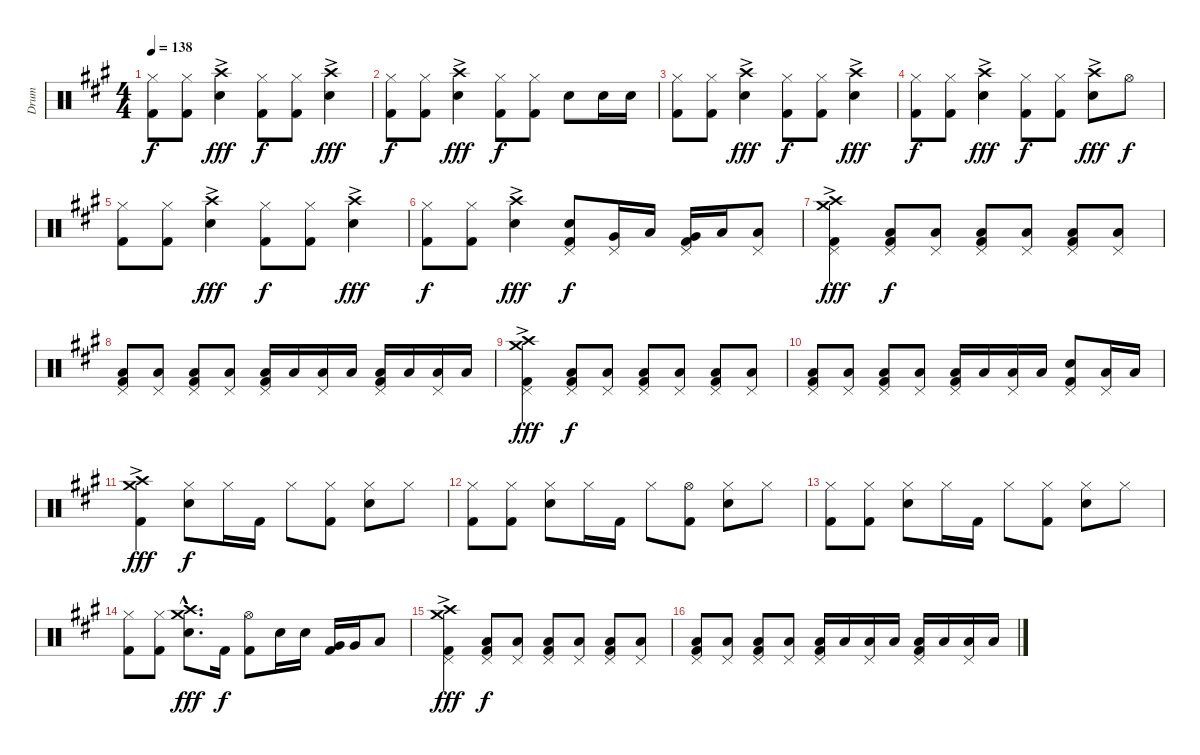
\track ("Drum" "Drum") {instrument percussion}
\staff {score}
\articulation defaults
\ts (4 4)
\tempo 138
\clef neutral
\ks a
("Hi-Hat (closed)" "Kick (hit) 2").8{dy f} ("Hi-Hat (closed)" "Kick (hit) 2").8 ("Crash high (hit)"{ac} "Snare (hit) 2").4{dy fff} ("Hi-Hat (closed)" "Kick (hit) 2").8{dy f} ("Hi-Hat (closed)" "Kick (hit) 2").8 ("Crash high (hit)"{ac} "Snare (hit) 2").4{dy fff} |
("Hi-Hat (closed)" "Kick (hit) 2").8{dy f} ("Hi-Hat (closed)" "Kick (hit) 2").8 ("Crash high (hit)"{ac} "Snare (hit) 2").4{dy fff} ("Hi-Hat (closed)" "Kick (hit) 2").8{dy f} ("Hi-Hat (closed)" "Kick (hit) 2").8 "Snare (hit) 2".8 "Snare (hit) 2".16 "Snare (hit) 2".16 |
("Hi-Hat (closed)" "Kick (hit) 2").8 ("Hi-Hat (closed)" "Kick (hit) 2").8 ("Crash high (hit)"{ac} "Snare (hit) 2").4{dy fff} ("Hi-Hat (closed)" "Kick (hit) 2").8{dy f} ("Hi-Hat (closed)" "Kick (hit) 2").8 ("Crash high (hit)"{ac} "Snare (hit) 2").4{dy fff} |
("Hi-Hat (closed)" "Kick (hit) 2").8{dy f} ("Hi-Hat (closed)" "Kick (hit) 2").8 ("Crash high (hit)"{ac} "Snare (hit) 2").4{dy fff} ("Hi-Hat (closed)" "Kick (hit) 2").8{dy f} ("Hi-Hat (closed)" "Kick (hit) 2").8 ("Crash high (hit)"{ac} "Snare (hit) 2").8{dy fff} "Hi-Hat (open)".8{dy f} |
("Hi-Hat (closed)" "Kick (hit) 2").8 ("Hi-Hat (closed)" "Kick (hit) 2").8 ("Crash high (hit)"{ac} "Snare (hit) 2").4{dy fff} ("Hi-Hat (closed)" "Kick (hit) 2").8{dy f} ("Hi-Hat (closed)" "Kick (hit) 2").8 ("Crash high (hit)"{ac} "Snare (hit) 2").4{dy fff} |
("Hi-Hat (closed)" "Kick (hit) 2").8{dy f} ("Hi-Hat (closed)" "Kick (hit) 2").8 ("Crash high (hit)"{ac} "Snare (hit) 2").4{dy fff} ("Pedal Hi-Hat (hit)" "Snare (hit) 2" "Kick (hit) 2").8{dy f} ("Very Low Tom (hit)" "Pedal Hi-Hat (hit)").16 "Low Floor Tom (hit)".16 ("Very Low Tom (hit)" "Pedal Hi-Hat (hit)" "Kick (hit) 2").16 "Low Floor Tom (hit)".16 ("Low Floor Tom (hit)" "Pedal Hi-Hat (hit)").8 |
("Crash medium (hit)"{ac} "Crash high (hit)"{ac} "Pedal Hi-Hat (hit)" "Kick (hit) 2").4{dy fff} ("Low Floor Tom (hit)" "Pedal Hi-Hat (hit)" "Kick (hit) 2").8{dy f} ("Low Floor Tom (hit)" "Pedal Hi-Hat (hit)").8 ("Low Floor Tom (hit)" "Pedal Hi-Hat (hit)" "Kick (hit) 2").8 ("Low Floor Tom (hit)" "Pedal Hi-Hat (hit)").8 ("Low Floor Tom (hit)" "Pedal Hi-Hat (hit)" "Kick (hit) 2").8 ("Low Floor Tom (hit)" "Pedal Hi-Hat (hit)").8 |
("Low Floor Tom (hit)" "Pedal Hi-Hat (hit)" "Kick (hit) 2").8 ("Low Floor Tom (hit)" "Pedal Hi-Hat (hit)").8 ("Low Floor Tom (hit)" "Pedal Hi-Hat (hit)" "Kick (hit) 2").8 ("Low Floor Tom (hit)" "Pedal Hi-Hat (hit)").8 ("Low Floor Tom (hit)" "Pedal Hi-Hat (hit)" "Kick (hit) 2").16 "Low Floor Tom (hit)".16 ("Low Floor Tom (hit)" "Pedal Hi-Hat (hit)").16 "Low Floor Tom (hit)".16 ("Low Floor Tom (hit)" "Pedal Hi-Hat (hit)" "Kick (hit) 2").16 "Low Floor Tom (hit)".16 ("Low Floor Tom (hit)" "Pedal Hi-Hat (hit)").16 "Low Floor Tom (hit)".16 |
("Crash medium (hit)"{ac} "Crash high (hit)"{ac} "Pedal Hi-Hat (hit)" "Kick (hit) 2").4{dy fff} ("Low Floor Tom (hit)" "Pedal Hi-Hat (hit)" "Kick (hit) 2").8{dy f} ("Low Floor Tom (hit)" "Pedal Hi-Hat (hit)").8 ("Low Floor Tom (hit)" "Pedal Hi-Hat (hit)" "Kick (hit) 2").8 ("Low Floor Tom (hit)" "Pedal Hi-Hat (hit)").8 ("Low Floor Tom (hit)" "Pedal Hi-Hat (hit)" "Kick (hit) 2").8 ("Low Floor Tom (hit)" "Pedal Hi-Hat (hit)").8 |
("Low Floor Tom (hit)" "Pedal Hi-Hat (hit)" "Kick (hit) 2").8 ("Low Floor Tom (hit)" "Pedal Hi-Hat (hit)").8 ("Low Floor Tom (hit)" "Pedal Hi-Hat (hit)" "Kick (hit) 2").8 ("Low Floor Tom (hit)" "Pedal Hi-Hat (hit)").8 ("Low Floor Tom (hit)" "Pedal Hi-Hat (hit)" "Kick (hit) 2").16 "Low Floor Tom (hit)".16 ("Low Floor Tom (hit)" "Pedal Hi-Hat (hit)").16 "Low Floor Tom (hit)".16 ("Pedal Hi-Hat (hit)" "Snare (hit) 2" "Kick (hit) 2").8 ("Low Floor Tom (hit)" "Pedal Hi-Hat (hit)").16 "Low Floor Tom (hit)".16 |
("Crash medium (hit)"{ac} "Crash high (hit)"{ac} "Kick (hit) 2").4{dy fff} ("Hi-Hat (closed)" "Snare (hit) 2").8{dy f} "Hi-Hat (closed)".16 "Kick (hit) 2".16 "Hi-Hat (closed)".8 ("Hi-Hat (closed)" "Kick (hit) 2").8 ("Hi-Hat (closed)" "Snare (hit) 2").8 "Hi-Hat (closed)".8 |
("Hi-Hat (closed)" "Kick (hit) 2").8 ("Hi-Hat (closed)" "Kick (hit) 2").8 ("Hi-Hat (closed)" "Snare (hit) 2").8 "Hi-Hat (closed)".16 "Kick (hit) 2".16 "Hi-Hat (closed)".8 ("Hi-Hat (open)" "Kick (hit) 2").8 ("Hi-Hat (closed)" "Snare (hit) 2").8 "Hi-Hat (closed)".8 |
("Hi-Hat (closed)" "Kick (hit) 2").8 ("Hi-Hat (closed)" "Kick (hit) 2").8 ("Hi-Hat (closed)" "Snare (hit) 2").8 "Hi-Hat (closed)".16 "Kick (hit) 2".16 "Hi-Hat (closed)".8 ("Hi-Hat (closed)" "Kick (hit) 2").8 ("Hi-Hat (closed)" "Snare (hit) 2").8 "Hi-Hat (closed)".8 |
("Hi-Hat (closed)" "Kick (hit) 2").8 ("Hi-Hat (closed)" "Kick (hit) 2").8 ("Crash medium (hit)"{hac} "Crash high (hit)"{hac} "Snare (hit) 2"{hac}).8{d dy fff} "Kick (hit) 2".16{dy f} ("Hi-Hat (open)" "Kick (hit) 2").8 "Snare (hit) 2".16 "Snare (hit) 2".16 ("Very Low Tom (hit)" "Kick (hit) 2").16 "Very Low Tom (hit)".16 "Low Floor Tom (hit)".8 |
("Crash medium (hit)"{ac} "Crash high (hit)"{ac} "Pedal Hi-Hat (hit)" "Kick (hit) 2").4{dy fff} ("Low Floor Tom (hit)" "Pedal Hi-Hat (hit)" "Kick (hit) 2").8{dy f} ("Low Floor Tom (hit)" "Pedal Hi-Hat (hit)").8 ("Low Floor Tom (hit)" "Pedal Hi-Hat (hit)" "Kick (hit) 2").8 ("Low Floor Tom (hit)" "Pedal Hi-Hat (hit)").8 ("Low Floor Tom (hit)" "Pedal Hi-Hat (hit)" "Kick (hit) 2").8 ("Low Floor Tom (hit)" "Pedal Hi-Hat (hit)").8 |
("Low Floor Tom (hit)" "Pedal Hi-Hat (hit)" "Kick (hit) 2").8 ("Low Floor Tom (hit)" "Pedal Hi-Hat (hit)").8 ("Low Floor Tom (hit)" "Pedal Hi-Hat (hit)" "Kick (hit) 2").8 ("Low Floor Tom (hit)" "Pedal Hi-Hat (hit)").8 ("Low Floor Tom (hit)" "Pedal Hi-Hat (hit)" "Kick (hit) 2").16 "Low Floor Tom (hit)".16 ("Low Floor Tom (hit)" "Pedal Hi-Hat (hit)").16 "Low Floor Tom (hit)".16 ("Low Floor Tom (hit)" "Pedal Hi-Hat (hit)" "Kick (hit) 2").16 "Low Floor Tom (hit)".16 ("Low Floor Tom (hit)" "Pedal Hi-Hat (hit)").16 "Low Floor Tom (hit)".16
